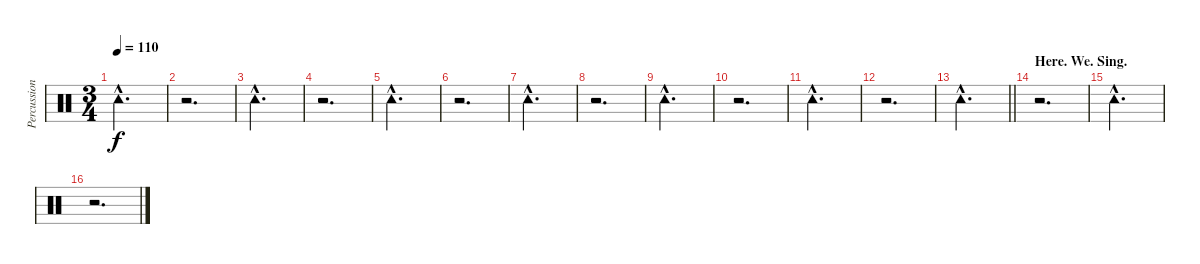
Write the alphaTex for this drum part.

\track ("Percussion" "Percussion") {instrument percussion}
\staff {score}
\articulation defaults
\ts (3 4)
\tempo 110
\clef neutral
\ks c "Tambourine (hit)"{hac}.2{d dy f}
|
r.2{d} |
"Tambourine (hit)"{hac}.2{d} |
r.2{d} |
"Tambourine (hit)"{hac}.2{d} |
r.2{d} |
"Tambourine (hit)"{hac}.2{d} |
r.2{d} |
"Tambourine (hit)"{hac}.2{d} |
r.2{d} |
"Tambourine (hit)"{hac}.2{d} |
r.2{d} |
\barLineRight lightlight "Tambourine (hit)"{hac}.2{d}
|
\section ("" "Here. We. Sing.")
r.2{d} |
"Tambourine (hit)"{hac}.2{d} |
r.2{d}
